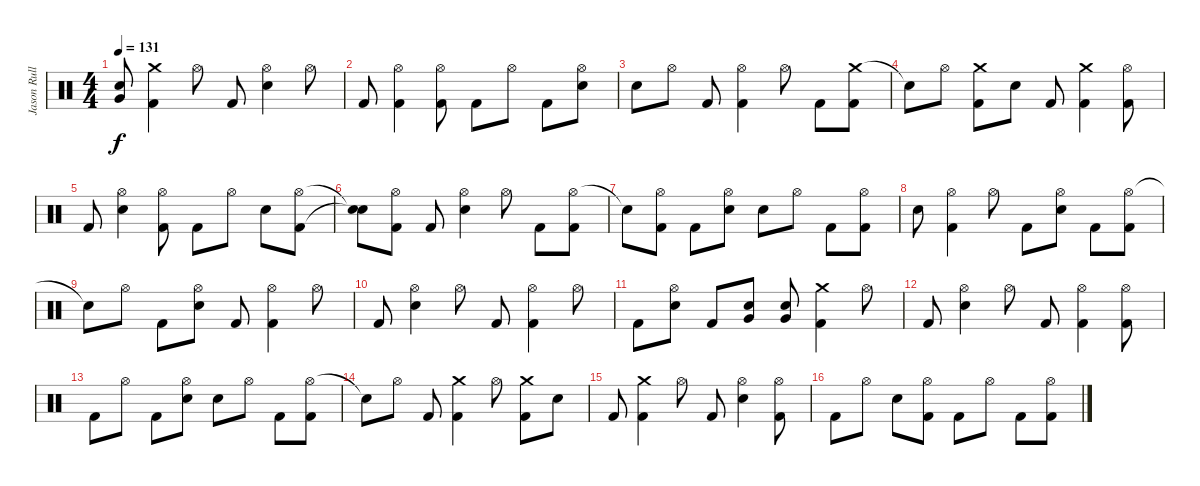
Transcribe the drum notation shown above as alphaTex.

\track ("Jason Rullo (Drums)" "Jason Rull") {instrument percussion}
\staff {score}
\articulation defaults
\ts (4 4)
\tempo 131
\clef neutral
\ks c
("Very Low Tom (hit)" "Electric Snare (hit)").8{dy f} ("Crash medium (hit)" "Kick (hit) 2").4 "Hi-Hat (open)".8 "Kick (hit) 2".8 ("Hi-Hat (open)" "Electric Snare (hit)").4 "Hi-Hat (open)".8 |
"Kick (hit) 2".8 ("Hi-Hat (open)" "Kick (hit) 2").4 ("Hi-Hat (open)" "Kick (hit) 2").8 "Kick (hit) 2".8 "Hi-Hat (open)".8 "Kick (hit) 2".8 ("Electric Snare (hit)" "Hi-Hat (open)").8 |
"Electric Snare (hit)".8 "Hi-Hat (open)".8 "Kick (hit) 2".8 ("Hi-Hat (open)" "Kick (hit) 2").4 "Hi-Hat (open)".8 "Kick (hit) 2".8 ("Crash medium (hit)" "Kick (hit) 2").8 |
"Snare (hit)"{t}.8 "Hi-Hat (open)".8 ("Crash medium (hit)" "Kick (hit) 2").8 "Electric Snare (hit)".8 "Kick (hit) 2".8 ("Kick (hit) 2" "Crash medium (hit)").4 ("Hi-Hat (open)" "Kick (hit) 2").8 |
"Kick (hit) 2".8 ("Hi-Hat (open)" "Electric Snare (hit)").4 ("Hi-Hat (open)" "Kick (hit) 2").8 "Kick (hit) 2".8 "Hi-Hat (open)".8 "Electric Snare (hit)".8 ("Hi-Hat (open)" "Kick (hit) 2").8 |
("Snare (hit)"{t} "Snare (hit)"{t}).8 ("Hi-Hat (open)" "Kick (hit) 2").8 "Kick (hit) 2".8 ("Hi-Hat (open)" "Electric Snare (hit)").4 "Hi-Hat (open)".8 "Kick (hit) 2".8 ("Hi-Hat (open)" "Kick (hit) 2").8 |
"Snare (hit)"{t}.8 ("Hi-Hat (open)" "Kick (hit) 2").8 "Kick (hit) 2".8 ("Hi-Hat (open)" "Electric Snare (hit)").8 "Electric Snare (hit)".8 "Hi-Hat (open)".8 "Kick (hit) 2".8 ("Hi-Hat (open)" "Kick (hit) 2").8 |
"Electric Snare (hit)".8 ("Hi-Hat (open)" "Kick (hit) 2").4 "Hi-Hat (open)".8 "Kick (hit) 2".8 ("Hi-Hat (open)" "Electric Snare (hit)").8 "Kick (hit) 2".8 ("Hi-Hat (open)" "Kick (hit) 2").8 |
"Snare (hit)"{t}.8 "Hi-Hat (open)".8 "Kick (hit) 2".8 ("Hi-Hat (open)" "Electric Snare (hit)").8 "Kick (hit) 2".8 ("Hi-Hat (open)" "Kick (hit) 2").4 "Hi-Hat (open)".8 |
"Kick (hit) 2".8 ("Hi-Hat (open)" "Electric Snare (hit)").4 "Hi-Hat (open)".8 "Kick (hit) 2".8 ("Hi-Hat (open)" "Kick (hit) 2").4 "Hi-Hat (open)".8 |
"Kick (hit) 2".8 ("Hi-Hat (open)" "Electric Snare (hit)").8 "Kick (hit) 2".8 ("Very Low Tom (hit)" "Electric Snare (hit)").8 ("Very Low Tom (hit)" "Electric Snare (hit)").8 ("Crash medium (hit)" "Kick (hit) 2").4 "Hi-Hat (open)".8 |
"Kick (hit) 2".8 ("Hi-Hat (open)" "Electric Snare (hit)").4 "Hi-Hat (open)".8 "Kick (hit) 2".8 ("Hi-Hat (open)" "Kick (hit) 2").4 ("Hi-Hat (open)" "Kick (hit) 2").8 |
"Kick (hit) 2".8 "Hi-Hat (open)".8 "Kick (hit) 2".8 ("Electric Snare (hit)" "Hi-Hat (open)").8 "Electric Snare (hit)".8 "Hi-Hat (open)".8 "Kick (hit) 2".8 ("Hi-Hat (open)" "Kick (hit) 2").8 |
"Snare (hit)"{t}.8 "Hi-Hat (open)".8 "Kick (hit) 2".8 ("Crash medium (hit)" "Kick (hit) 2").4 "Hi-Hat (open)".8 ("Crash medium (hit)" "Kick (hit) 2").8 "Electric Snare (hit)".8 |
"Kick (hit) 2".8 ("Crash medium (hit)" "Kick (hit) 2").4 "Hi-Hat (open)".8 "Kick (hit) 2".8 ("Hi-Hat (open)" "Electric Snare (hit)").4 ("Hi-Hat (open)" "Kick (hit) 2").8 |
"Kick (hit) 2".8 "Hi-Hat (open)".8 "Electric Snare (hit)".8 ("Hi-Hat (open)" "Kick (hit) 2").8 "Kick (hit) 2".8 "Hi-Hat (open)".8 "Kick (hit) 2".8 ("Hi-Hat (open)" "Kick (hit) 2").8
